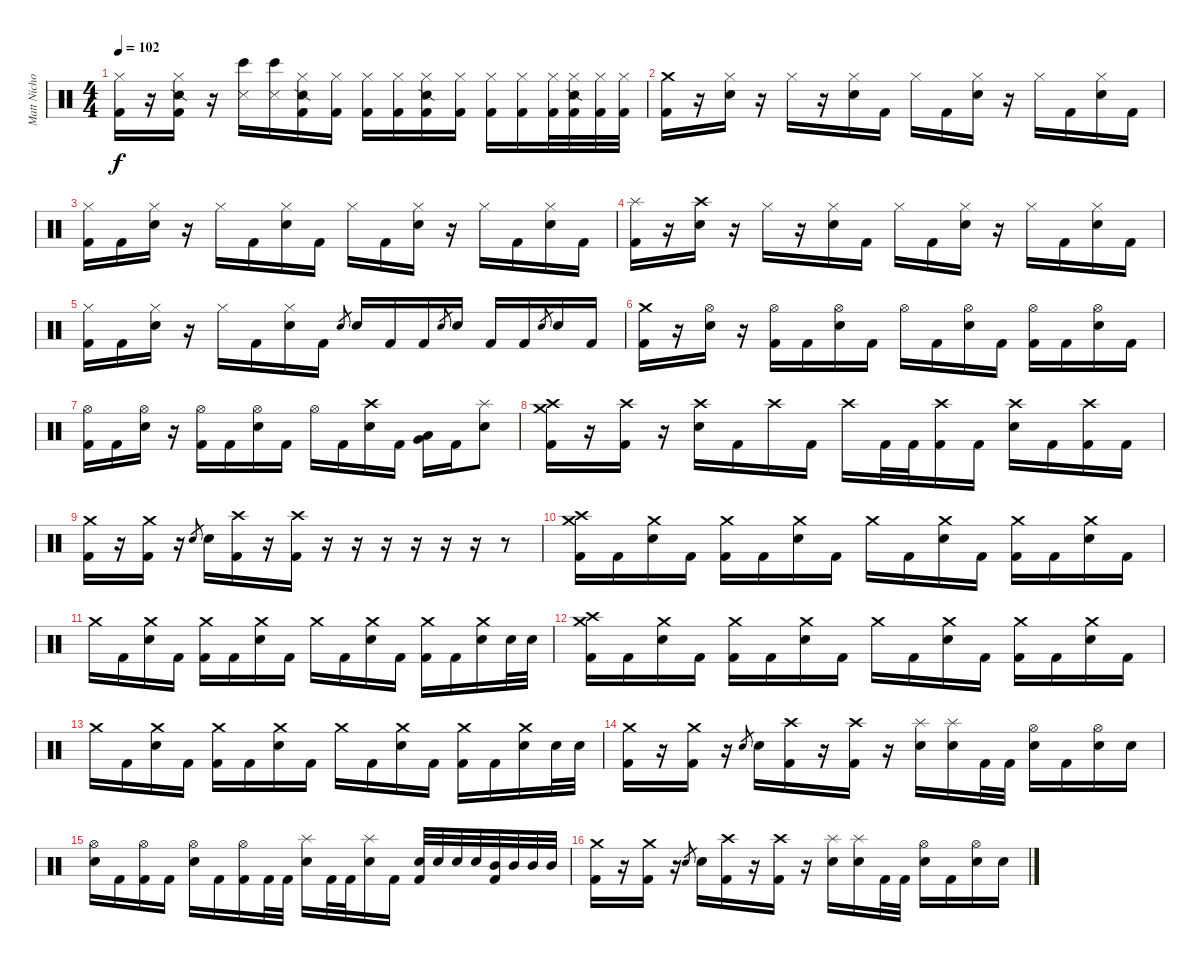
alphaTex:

\track ("Matt Nichols" "Matt Nicho") {instrument percussion}
\staff {score}
\articulation defaults
\ts (4 4)
\tempo 102
\clef neutral
\ks c
("Kick (hit) 2" "Hi-Hat (closed)").16{dy f} r.16 ("Snare (side stick) 2" "Kick (hit) 2" "Hi-Hat (closed)").16 r.16 ("Bongo High (hit)" "Snare (side stick) 3").16 ("Bongo High (hit)" "Snare (side stick) 3").16 ("Snare (side stick) 2" "Kick (hit) 2" "Hi-Hat (closed)").16 ("Kick (hit) 2" "Hi-Hat (closed)").16 ("Kick (hit) 2" "Hi-Hat (closed)").16 ("Kick (hit) 2" "Hi-Hat (closed)").16 ("Snare (side stick) 2" "Kick (hit) 2" "Hi-Hat (closed)").16 ("Kick (hit) 2" "Hi-Hat (closed)").16 ("Kick (hit) 2" "Hi-Hat (closed)").16 ("Kick (hit) 2" "Hi-Hat (closed)").16 ("Kick (hit) 2" "Hi-Hat (closed)").32 ("Snare (side stick) 2" "Kick (hit) 2" "Hi-Hat (closed)").32 ("Kick (hit) 2" "Hi-Hat (closed)").32 ("Kick (hit) 2" "Hi-Hat (closed)").32 |
("Crash medium (hit)" "Kick (hit) 2").16 r.16 ("Hi-Hat (closed)" "Electric Snare (hit)").16 r.16 "Hi-Hat (closed)".16 r.16 ("Hi-Hat (closed)" "Electric Snare (hit)").16 "Kick (hit) 2".16 "Hi-Hat (closed)".16 "Kick (hit) 2".16 ("Hi-Hat (closed)" "Electric Snare (hit)").16 r.16 "Hi-Hat (closed)".16 "Kick (hit) 2".16 ("Hi-Hat (closed)" "Electric Snare (hit)").16 "Kick (hit) 2".16 |
("Hi-Hat (closed)" "Kick (hit) 2").16 "Kick (hit) 2".16 ("Hi-Hat (closed)" "Electric Snare (hit)").16 r.16 "Hi-Hat (closed)".16 "Kick (hit) 2".16 ("Hi-Hat (closed)" "Electric Snare (hit)").16 "Kick (hit) 2".16 "Hi-Hat (closed)".16 "Kick (hit) 2".16 ("Hi-Hat (closed)" "Electric Snare (hit)").16 r.16 "Hi-Hat (closed)".16 "Kick (hit) 2".16 ("Hi-Hat (closed)" "Electric Snare (hit)").16 "Kick (hit) 2".16 |
("Splash (hit)" "Kick (hit) 2").16 r.16 ("Crash high (hit)" "Electric Snare (hit)").16 r.16 "Hi-Hat (closed)".16 r.16 ("Hi-Hat (closed)" "Electric Snare (hit)").16 "Kick (hit) 2".16 "Hi-Hat (closed)".16 "Kick (hit) 2".16 ("Hi-Hat (closed)" "Electric Snare (hit)").16 r.16 "Hi-Hat (closed)".16 "Kick (hit) 2".16 ("Hi-Hat (closed)" "Electric Snare (hit)").16 "Kick (hit) 2".16 |
("Hi-Hat (closed)" "Kick (hit) 2").16 "Kick (hit) 2".16 ("Hi-Hat (closed)" "Electric Snare (hit)").16 r.16 "Hi-Hat (closed)".16 "Kick (hit) 2".16 ("Hi-Hat (closed)" "Electric Snare (hit)").16 "Kick (hit) 2".16 "Electric Snare (hit)".8{gr} "Electric Snare (hit)".16 "Kick (hit) 2".16 "Kick (hit) 2".16 "Electric Snare (hit)".8{gr} "Electric Snare (hit)".16 "Kick (hit) 2".16 "Kick (hit) 2".16 "Electric Snare (hit)".8{gr} "Electric Snare (hit)".16 "Kick (hit) 2".16 |
("Crash medium (hit)" "Kick (hit) 2").16 r.16 ("Hi-Hat (open)" "Electric Snare (hit)").16 r.16 ("Hi-Hat (open)" "Kick (hit) 2").16 "Kick (hit) 2".16 ("Hi-Hat (open)" "Electric Snare (hit)").16 "Kick (hit) 2".16 "Hi-Hat (open)".16 "Kick (hit) 2".16 ("Hi-Hat (open)" "Electric Snare (hit)").16 "Kick (hit) 2".16 ("Hi-Hat (open)" "Kick (hit) 2").16 "Kick (hit) 2".16 ("Hi-Hat (open)" "Electric Snare (hit)").16 "Kick (hit) 2".16 |
("Hi-Hat (open)" "Kick (hit) 2").16 "Kick (hit) 2".16 ("Hi-Hat (open)" "Electric Snare (hit)").16 r.16 ("Hi-Hat (open)" "Kick (hit) 2").16 "Kick (hit) 2".16 ("Hi-Hat (open)" "Electric Snare (hit)").16 "Kick (hit) 2".16 "Hi-Hat (open)".16 "Kick (hit) 2".16 ("Crash high (hit)" "Electric Snare (hit)").16 "Kick (hit) 2".16 ("Very Low Tom (hit)" "Low Tom (hit)").16 "Kick (hit) 2".16 ("Splash (hit)" "Electric Snare (hit)").8 |
("Crash high (hit)" "Crash medium (hit)" "Kick (hit) 2").16 r.16 ("Crash high (hit)" "Kick (hit) 2").16 r.16 ("Crash high (hit)" "Electric Snare (hit)").16 "Kick (hit) 2".16 "Crash high (hit)".16 "Kick (hit) 2".16 "Crash high (hit)".16 "Kick (hit) 2".32 "Kick (hit) 2".32 ("Crash high (hit)" "Kick (hit) 2").16 "Kick (hit) 2".16 ("Crash high (hit)" "Electric Snare (hit)").16 "Kick (hit) 2".16 ("Crash high (hit)" "Kick (hit) 2").16 "Kick (hit) 2".16 |
("Crash medium (hit)" "Kick (hit) 2").16 r.16 ("Crash medium (hit)" "Kick (hit) 2").16 r.16 "Electric Snare (hit)".8{gr} "Electric Snare (hit)".16 ("Crash high (hit)" "Kick (hit) 2").16 r.16 ("Crash high (hit)" "Kick (hit) 2").16 r.16 r.16 r.16 r.16 r.16 r.16 r.8 |
("Crash high (hit)" "Crash medium (hit)" "Kick (hit) 2").16 "Kick (hit) 2".16 ("Crash medium (hit)" "Electric Snare (hit)").16 "Kick (hit) 2".16 ("Crash medium (hit)" "Kick (hit) 2").16 "Kick (hit) 2".16 ("Crash medium (hit)" "Electric Snare (hit)").16 "Kick (hit) 2".16 "Crash medium (hit)".16 "Kick (hit) 2".16 ("Crash medium (hit)" "Electric Snare (hit)").16 "Kick (hit) 2".16 ("Crash medium (hit)" "Kick (hit) 2").16 "Kick (hit) 2".16 ("Crash medium (hit)" "Electric Snare (hit)").16 "Kick (hit) 2".16 |
"Crash medium (hit)".16 "Kick (hit) 2".16 ("Crash medium (hit)" "Electric Snare (hit)").16 "Kick (hit) 2".16 ("Crash medium (hit)" "Kick (hit) 2").16 "Kick (hit) 2".16 ("Crash medium (hit)" "Electric Snare (hit)").16 "Kick (hit) 2".16 "Crash medium (hit)".16 "Kick (hit) 2".16 ("Crash medium (hit)" "Electric Snare (hit)").16 "Kick (hit) 2".16 ("Crash medium (hit)" "Kick (hit) 2").16 "Kick (hit) 2".16 ("Crash medium (hit)" "Electric Snare (hit)").16 "Electric Snare (hit)".32 "Electric Snare (hit)".32 |
("Crash high (hit)" "Crash medium (hit)" "Kick (hit) 2").16 "Kick (hit) 2".16 ("Crash medium (hit)" "Electric Snare (hit)").16 "Kick (hit) 2".16 ("Crash medium (hit)" "Kick (hit) 2").16 "Kick (hit) 2".16 ("Crash medium (hit)" "Electric Snare (hit)").16 "Kick (hit) 2".16 "Crash medium (hit)".16 "Kick (hit) 2".16 ("Crash medium (hit)" "Electric Snare (hit)").16 "Kick (hit) 2".16 ("Crash medium (hit)" "Kick (hit) 2").16 "Kick (hit) 2".16 ("Crash medium (hit)" "Electric Snare (hit)").16 "Kick (hit) 2".16 |
"Crash medium (hit)".16 "Kick (hit) 2".16 ("Crash medium (hit)" "Electric Snare (hit)").16 "Kick (hit) 2".16 ("Crash medium (hit)" "Kick (hit) 2").16 "Kick (hit) 2".16 ("Crash medium (hit)" "Electric Snare (hit)").16 "Kick (hit) 2".16 "Crash medium (hit)".16 "Kick (hit) 2".16 ("Crash medium (hit)" "Electric Snare (hit)").16 "Kick (hit) 2".16 ("Crash medium (hit)" "Kick (hit) 2").16 "Kick (hit) 2".16 ("Crash medium (hit)" "Electric Snare (hit)").16 "Electric Snare (hit)".32 "Electric Snare (hit)".32 |
("Crash medium (hit)" "Kick (hit) 2").16 r.16 ("Crash medium (hit)" "Kick (hit) 2").16 r.16 "Electric Snare (hit)".8{gr} "Electric Snare (hit)".16 ("Crash high (hit)" "Kick (hit) 2").16 r.16 ("Crash high (hit)" "Kick (hit) 2").16 r.16 ("Splash (hit)" "Electric Snare (hit)").16 ("Splash (hit)" "Electric Snare (hit)").16 "Kick (hit) 2".32 "Kick (hit) 2".32 ("Hi-Hat (open)" "Electric Snare (hit)").16 "Kick (hit) 2".16 ("Hi-Hat (open)" "Electric Snare (hit)").16 "Electric Snare (hit)".16 |
("Hi-Hat (open)" "Electric Snare (hit)").16 "Kick (hit) 2".16 ("Hi-Hat (open)" "Kick (hit) 2").16 "Kick (hit) 2".16 ("Hi-Hat (open)" "Electric Snare (hit)").16 "Kick (hit) 2".16 ("Hi-Hat (open)" "Kick (hit) 2").16 "Kick (hit) 2".32 "Kick (hit) 2".32 ("Splash (hit)" "Electric Snare (hit)").16 "Kick (hit) 2".32 "Kick (hit) 2".32 ("Splash (hit)" "Electric Snare (hit)").16 "Kick (hit) 2".16 ("Electric Snare (hit)" "Kick (hit) 2").32 "Electric Snare (hit)".32 "Electric Snare (hit)".32 "Electric Snare (hit)".32 ("Mid Tom (hit)" "Kick (hit) 2").32 "Mid Tom (hit)".32 "Mid Tom (hit)".32 "Mid Tom (hit)".32 |
("Crash medium (hit)" "Kick (hit) 2").16 r.16 ("Crash medium (hit)" "Kick (hit) 2").16 r.16 "Electric Snare (hit)".8{gr} "Electric Snare (hit)".16 ("Crash high (hit)" "Kick (hit) 2").16 r.16 ("Crash high (hit)" "Kick (hit) 2").16 r.16 ("Splash (hit)" "Electric Snare (hit)").16 ("Splash (hit)" "Electric Snare (hit)").16 "Kick (hit) 2".32 "Kick (hit) 2".32 ("Hi-Hat (open)" "Electric Snare (hit)").16 "Kick (hit) 2".16 ("Hi-Hat (open)" "Electric Snare (hit)").16 "Electric Snare (hit)".16
